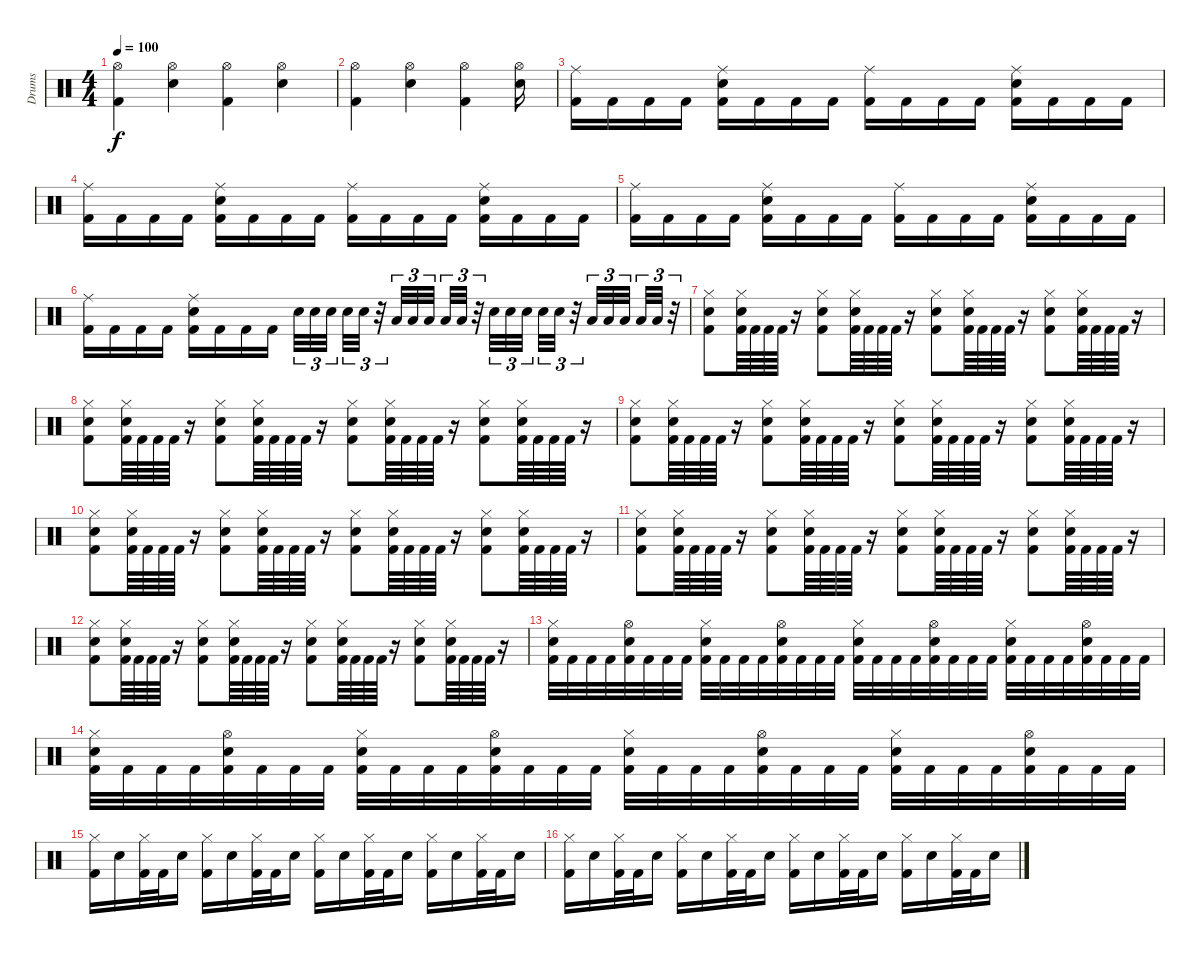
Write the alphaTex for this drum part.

\track ("Drums" "Drums") {instrument percussion}
\staff {score}
\articulation defaults
\ts (4 4)
\tempo 100
\clef neutral
\ks c
("Hi-Hat (open)" "Kick (hit) 2").4{dy f} ("Hi-Hat (open)" "Snare (hit) 2").4 ("Hi-Hat (open)" "Kick (hit) 2").4 ("Hi-Hat (open)" "Snare (hit) 2").4 |
("Hi-Hat (open)" "Kick (hit) 2").4 ("Hi-Hat (open)" "Snare (hit) 2").4 ("Hi-Hat (open)" "Kick (hit) 2").4 ("Hi-Hat (open)" "Snare (hit) 2").16 |
("Ride (middle)" "Kick (hit) 2").16 "Kick (hit) 2".16 "Kick (hit) 2".16 "Kick (hit) 2".16 ("Ride (middle)" "Snare (hit) 2" "Kick (hit) 2").16 "Kick (hit) 2".16 "Kick (hit) 2".16 "Kick (hit) 2".16 ("Ride (middle)" "Kick (hit) 2").16 "Kick (hit) 2".16 "Kick (hit) 2".16 "Kick (hit) 2".16 ("Ride (middle)" "Snare (hit) 2" "Kick (hit) 2").16 "Kick (hit) 2".16 "Kick (hit) 2".16 "Kick (hit) 2".16 |
("Ride (middle)" "Kick (hit) 2").16 "Kick (hit) 2".16 "Kick (hit) 2".16 "Kick (hit) 2".16 ("Ride (middle)" "Snare (hit) 2" "Kick (hit) 2").16 "Kick (hit) 2".16 "Kick (hit) 2".16 "Kick (hit) 2".16 ("Ride (middle)" "Kick (hit) 2").16 "Kick (hit) 2".16 "Kick (hit) 2".16 "Kick (hit) 2".16 ("Ride (middle)" "Snare (hit) 2" "Kick (hit) 2").16 "Kick (hit) 2".16 "Kick (hit) 2".16 "Kick (hit) 2".16 |
("Ride (middle)" "Kick (hit) 2").16 "Kick (hit) 2".16 "Kick (hit) 2".16 "Kick (hit) 2".16 ("Ride (middle)" "Snare (hit) 2" "Kick (hit) 2").16 "Kick (hit) 2".16 "Kick (hit) 2".16 "Kick (hit) 2".16 ("Ride (middle)" "Kick (hit) 2").16 "Kick (hit) 2".16 "Kick (hit) 2".16 "Kick (hit) 2".16 ("Ride (middle)" "Snare (hit) 2" "Kick (hit) 2").16 "Kick (hit) 2".16 "Kick (hit) 2".16 "Kick (hit) 2".16 |
("Ride (middle)" "Kick (hit) 2").16 "Kick (hit) 2".16 "Kick (hit) 2".16 "Kick (hit) 2".16 ("Ride (middle)" "Snare (hit) 2" "Kick (hit) 2").16 "Kick (hit) 2".16 "Kick (hit) 2".16 "Kick (hit) 2".16 "Snare (hit) 2".32{tu (3 2)} "Snare (hit) 2".32{tu (3 2)} "Snare (hit) 2".32{tu (3 2) beam splitsecondary} "Snare (hit) 2".32{tu (3 2)} "Snare (hit) 2".32{tu (3 2)} r.32{tu (3 2)} "Low Tom (hit)".32{tu (3 2)} "Low Tom (hit)".32{tu (3 2)} "Low Tom (hit)".32{tu (3 2) beam splitsecondary} "Low Tom (hit)".32{tu (3 2)} "Low Tom (hit)".32{tu (3 2)} r.32{tu (3 2)} "Snare (hit) 2".32{tu (3 2)} "Snare (hit) 2".32{tu (3 2)} "Snare (hit) 2".32{tu (3 2) beam splitsecondary} "Snare (hit) 2".32{tu (3 2)} "Snare (hit) 2".32{tu (3 2)} r.32{tu (3 2)} "Low Tom (hit)".32{tu (3 2)} "Low Tom (hit)".32{tu (3 2)} "Low Tom (hit)".32{tu (3 2) beam splitsecondary} "Low Tom (hit)".32{tu (3 2)} "Low Tom (hit)".32{tu (3 2)} r.32{tu (3 2)} |
("Hi-Hat (closed)" "Snare (hit) 2" "Kick (hit) 2").8 ("Hi-Hat (closed)" "Snare (hit) 2" "Kick (hit) 2").64 "Kick (hit) 2".64 "Kick (hit) 2".64 "Kick (hit) 2".64 r.16 ("Hi-Hat (closed)" "Snare (hit) 2" "Kick (hit) 2").8 ("Hi-Hat (closed)" "Snare (hit) 2" "Kick (hit) 2").64 "Kick (hit) 2".64 "Kick (hit) 2".64 "Kick (hit) 2".64 r.16 ("Hi-Hat (closed)" "Snare (hit) 2" "Kick (hit) 2").8 ("Hi-Hat (closed)" "Snare (hit) 2" "Kick (hit) 2").64 "Kick (hit) 2".64 "Kick (hit) 2".64 "Kick (hit) 2".64 r.16 ("Hi-Hat (closed)" "Snare (hit) 2" "Kick (hit) 2").8 ("Hi-Hat (closed)" "Snare (hit) 2" "Kick (hit) 2").64 "Kick (hit) 2".64 "Kick (hit) 2".64 "Kick (hit) 2".64 r.16 |
("Hi-Hat (closed)" "Snare (hit) 2" "Kick (hit) 2").8 ("Hi-Hat (closed)" "Snare (hit) 2" "Kick (hit) 2").64 "Kick (hit) 2".64 "Kick (hit) 2".64 "Kick (hit) 2".64 r.16 ("Hi-Hat (closed)" "Snare (hit) 2" "Kick (hit) 2").8 ("Hi-Hat (closed)" "Snare (hit) 2" "Kick (hit) 2").64 "Kick (hit) 2".64 "Kick (hit) 2".64 "Kick (hit) 2".64 r.16 ("Hi-Hat (closed)" "Snare (hit) 2" "Kick (hit) 2").8 ("Hi-Hat (closed)" "Snare (hit) 2" "Kick (hit) 2").64 "Kick (hit) 2".64 "Kick (hit) 2".64 "Kick (hit) 2".64 r.16 ("Hi-Hat (closed)" "Snare (hit) 2" "Kick (hit) 2").8 ("Hi-Hat (closed)" "Snare (hit) 2" "Kick (hit) 2").64 "Kick (hit) 2".64 "Kick (hit) 2".64 "Kick (hit) 2".64 r.16 |
("Hi-Hat (closed)" "Snare (hit) 2" "Kick (hit) 2").8 ("Hi-Hat (closed)" "Snare (hit) 2" "Kick (hit) 2").64 "Kick (hit) 2".64 "Kick (hit) 2".64 "Kick (hit) 2".64 r.16 ("Hi-Hat (closed)" "Snare (hit) 2" "Kick (hit) 2").8 ("Hi-Hat (closed)" "Snare (hit) 2" "Kick (hit) 2").64 "Kick (hit) 2".64 "Kick (hit) 2".64 "Kick (hit) 2".64 r.16 ("Hi-Hat (closed)" "Snare (hit) 2" "Kick (hit) 2").8 ("Hi-Hat (closed)" "Snare (hit) 2" "Kick (hit) 2").64 "Kick (hit) 2".64 "Kick (hit) 2".64 "Kick (hit) 2".64 r.16 ("Hi-Hat (closed)" "Snare (hit) 2" "Kick (hit) 2").8 ("Hi-Hat (closed)" "Snare (hit) 2" "Kick (hit) 2").64 "Kick (hit) 2".64 "Kick (hit) 2".64 "Kick (hit) 2".64 r.16 |
("Hi-Hat (closed)" "Snare (hit) 2" "Kick (hit) 2").8 ("Hi-Hat (closed)" "Snare (hit) 2" "Kick (hit) 2").64 "Kick (hit) 2".64 "Kick (hit) 2".64 "Kick (hit) 2".64 r.16 ("Hi-Hat (closed)" "Snare (hit) 2" "Kick (hit) 2").8 ("Hi-Hat (closed)" "Snare (hit) 2" "Kick (hit) 2").64 "Kick (hit) 2".64 "Kick (hit) 2".64 "Kick (hit) 2".64 r.16 ("Hi-Hat (closed)" "Snare (hit) 2" "Kick (hit) 2").8 ("Hi-Hat (closed)" "Snare (hit) 2" "Kick (hit) 2").64 "Kick (hit) 2".64 "Kick (hit) 2".64 "Kick (hit) 2".64 r.16 ("Hi-Hat (closed)" "Snare (hit) 2" "Kick (hit) 2").8 ("Hi-Hat (closed)" "Snare (hit) 2" "Kick (hit) 2").64 "Kick (hit) 2".64 "Kick (hit) 2".64 "Kick (hit) 2".64 r.16 |
("Hi-Hat (closed)" "Snare (hit) 2" "Kick (hit) 2").8 ("Hi-Hat (closed)" "Snare (hit) 2" "Kick (hit) 2").64 "Kick (hit) 2".64 "Kick (hit) 2".64 "Kick (hit) 2".64 r.16 ("Hi-Hat (closed)" "Snare (hit) 2" "Kick (hit) 2").8 ("Hi-Hat (closed)" "Snare (hit) 2" "Kick (hit) 2").64 "Kick (hit) 2".64 "Kick (hit) 2".64 "Kick (hit) 2".64 r.16 ("Hi-Hat (closed)" "Snare (hit) 2" "Kick (hit) 2").8 ("Hi-Hat (closed)" "Snare (hit) 2" "Kick (hit) 2").64 "Kick (hit) 2".64 "Kick (hit) 2".64 "Kick (hit) 2".64 r.16 ("Hi-Hat (closed)" "Snare (hit) 2" "Kick (hit) 2").8 ("Hi-Hat (closed)" "Snare (hit) 2" "Kick (hit) 2").64 "Kick (hit) 2".64 "Kick (hit) 2".64 "Kick (hit) 2".64 r.16 |
("Hi-Hat (closed)" "Snare (hit) 2" "Kick (hit) 2").8 ("Hi-Hat (closed)" "Snare (hit) 2" "Kick (hit) 2").64 "Kick (hit) 2".64 "Kick (hit) 2".64 "Kick (hit) 2".64 r.16 ("Hi-Hat (closed)" "Snare (hit) 2" "Kick (hit) 2").8 ("Hi-Hat (closed)" "Snare (hit) 2" "Kick (hit) 2").64 "Kick (hit) 2".64 "Kick (hit) 2".64 "Kick (hit) 2".64 r.16 ("Hi-Hat (closed)" "Snare (hit) 2" "Kick (hit) 2").8 ("Hi-Hat (closed)" "Snare (hit) 2" "Kick (hit) 2").64 "Kick (hit) 2".64 "Kick (hit) 2".64 "Kick (hit) 2".64 r.16 ("Hi-Hat (closed)" "Snare (hit) 2" "Kick (hit) 2").8 ("Hi-Hat (closed)" "Snare (hit) 2" "Kick (hit) 2").64 "Kick (hit) 2".64 "Kick (hit) 2".64 "Kick (hit) 2".64 r.16 |
("Hi-Hat (closed)" "Snare (hit) 2" "Kick (hit) 2").32 "Kick (hit) 2".32 "Kick (hit) 2".32 "Kick (hit) 2".32 ("Hi-Hat (open)" "Snare (hit) 2" "Kick (hit) 2").32 "Kick (hit) 2".32 "Kick (hit) 2".32 "Kick (hit) 2".32 ("Hi-Hat (closed)" "Snare (hit) 2" "Kick (hit) 2").32 "Kick (hit) 2".32 "Kick (hit) 2".32 "Kick (hit) 2".32 ("Hi-Hat (open)" "Snare (hit) 2" "Kick (hit) 2").32 "Kick (hit) 2".32 "Kick (hit) 2".32 "Kick (hit) 2".32 ("Hi-Hat (closed)" "Snare (hit) 2" "Kick (hit) 2").32 "Kick (hit) 2".32 "Kick (hit) 2".32 "Kick (hit) 2".32 ("Hi-Hat (open)" "Snare (hit) 2" "Kick (hit) 2").32 "Kick (hit) 2".32 "Kick (hit) 2".32 "Kick (hit) 2".32 ("Hi-Hat (closed)" "Snare (hit) 2" "Kick (hit) 2").32 "Kick (hit) 2".32 "Kick (hit) 2".32 "Kick (hit) 2".32 ("Hi-Hat (open)" "Snare (hit) 2" "Kick (hit) 2").32 "Kick (hit) 2".32 "Kick (hit) 2".32 "Kick (hit) 2".32 |
("Hi-Hat (closed)" "Snare (hit) 2" "Kick (hit) 2").32 "Kick (hit) 2".32 "Kick (hit) 2".32 "Kick (hit) 2".32 ("Hi-Hat (open)" "Snare (hit) 2" "Kick (hit) 2").32 "Kick (hit) 2".32 "Kick (hit) 2".32 "Kick (hit) 2".32 ("Hi-Hat (closed)" "Snare (hit) 2" "Kick (hit) 2").32 "Kick (hit) 2".32 "Kick (hit) 2".32 "Kick (hit) 2".32 ("Hi-Hat (open)" "Snare (hit) 2" "Kick (hit) 2").32 "Kick (hit) 2".32 "Kick (hit) 2".32 "Kick (hit) 2".32 ("Hi-Hat (closed)" "Snare (hit) 2" "Kick (hit) 2").32 "Kick (hit) 2".32 "Kick (hit) 2".32 "Kick (hit) 2".32 ("Hi-Hat (open)" "Snare (hit) 2" "Kick (hit) 2").32 "Kick (hit) 2".32 "Kick (hit) 2".32 "Kick (hit) 2".32 ("Hi-Hat (closed)" "Snare (hit) 2" "Kick (hit) 2").32 "Kick (hit) 2".32 "Kick (hit) 2".32 "Kick (hit) 2".32 ("Hi-Hat (open)" "Snare (hit) 2" "Kick (hit) 2").32 "Kick (hit) 2".32 "Kick (hit) 2".32 "Kick (hit) 2".32 |
("Hi-Hat (closed)" "Kick (hit) 2").16 "Snare (hit) 2".16 ("Hi-Hat (closed)" "Kick (hit) 2").32 "Kick (hit) 2".32 "Snare (hit) 2".16 ("Hi-Hat (closed)" "Kick (hit) 2").16 "Snare (hit) 2".16 ("Hi-Hat (closed)" "Kick (hit) 2").32 "Kick (hit) 2".32 "Snare (hit) 2".16 ("Hi-Hat (closed)" "Kick (hit) 2").16 "Snare (hit) 2".16 ("Hi-Hat (closed)" "Kick (hit) 2").32 "Kick (hit) 2".32 "Snare (hit) 2".16 ("Hi-Hat (closed)" "Kick (hit) 2").16 "Snare (hit) 2".16 ("Hi-Hat (closed)" "Kick (hit) 2").32 "Kick (hit) 2".32 "Snare (hit) 2".16 |
("Hi-Hat (closed)" "Kick (hit) 2").16 "Snare (hit) 2".16 ("Hi-Hat (closed)" "Kick (hit) 2").32 "Kick (hit) 2".32 "Snare (hit) 2".16 ("Hi-Hat (closed)" "Kick (hit) 2").16 "Snare (hit) 2".16 ("Hi-Hat (closed)" "Kick (hit) 2").32 "Kick (hit) 2".32 "Snare (hit) 2".16 ("Hi-Hat (closed)" "Kick (hit) 2").16 "Snare (hit) 2".16 ("Hi-Hat (closed)" "Kick (hit) 2").32 "Kick (hit) 2".32 "Snare (hit) 2".16 ("Hi-Hat (closed)" "Kick (hit) 2").16 "Snare (hit) 2".16 ("Hi-Hat (closed)" "Kick (hit) 2").32 "Kick (hit) 2".32 "Snare (hit) 2".16
